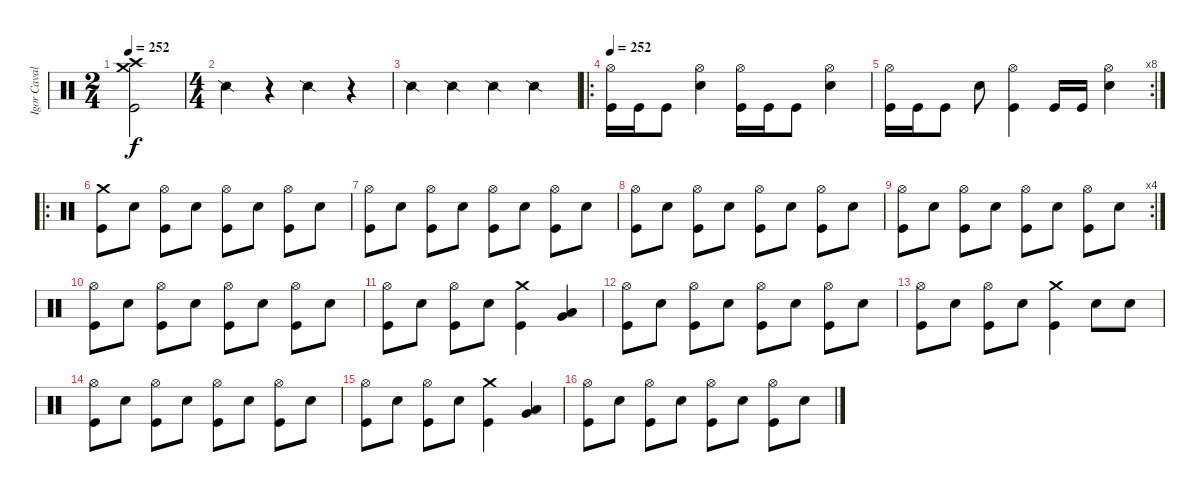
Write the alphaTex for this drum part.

\track ("Igor Cavalera" "Igor Caval") {instrument percussion}
\staff {score}
\articulation defaults
\ts (2 4)
\tempo 252
\clef neutral
\ks c
("Crash high (hit)" "Crash medium (hit)" "Kick (hit)").2{dy f} |
\ts (4 4)
"Snare (side stick) 2".4 r.4 "Snare (side stick) 2".4 r.4 |
"Snare (side stick) 2".4 "Snare (side stick) 2".4 "Snare (side stick) 2".4 "Snare (side stick) 2".4 |
\ro
\tempo 252
("Hi-Hat (open)" "Kick (hit)").16 "Kick (hit)".16 "Kick (hit)".8 ("Hi-Hat (open)" "Electric Snare (hit)").4 ("Hi-Hat (open)" "Kick (hit)").16 "Kick (hit)".16 "Kick (hit)".8 ("Hi-Hat (open)" "Electric Snare (hit)").4 |
\rc 8
("Hi-Hat (open)" "Kick (hit)").16 "Kick (hit)".16 "Kick (hit)".8 "Electric Snare (hit)".8 ("Hi-Hat (open)" "Kick (hit)").4 "Kick (hit)".16 "Kick (hit)".16 ("Hi-Hat (open)" "Electric Snare (hit)").4 |
\ro
("Crash medium (hit)" "Kick (hit)").8 "Electric Snare (hit)".8 ("Hi-Hat (open)" "Kick (hit)").8 "Electric Snare (hit)".8 ("Hi-Hat (open)" "Kick (hit)").8 "Electric Snare (hit)".8 ("Hi-Hat (open)" "Kick (hit)").8 "Electric Snare (hit)".8 |
("Hi-Hat (open)" "Kick (hit)").8 "Electric Snare (hit)".8 ("Hi-Hat (open)" "Kick (hit)").8 "Electric Snare (hit)".8 ("Hi-Hat (open)" "Kick (hit)").8 "Electric Snare (hit)".8 ("Hi-Hat (open)" "Kick (hit)").8 "Electric Snare (hit)".8 |
("Hi-Hat (open)" "Kick (hit)").8 "Electric Snare (hit)".8 ("Hi-Hat (open)" "Kick (hit)").8 "Electric Snare (hit)".8 ("Hi-Hat (open)" "Kick (hit)").8 "Electric Snare (hit)".8 ("Hi-Hat (open)" "Kick (hit)").8 "Electric Snare (hit)".8 |
\rc 4
("Hi-Hat (open)" "Kick (hit)").8 "Electric Snare (hit)".8 ("Hi-Hat (open)" "Kick (hit)").8 "Electric Snare (hit)".8 ("Hi-Hat (open)" "Kick (hit)").8 "Electric Snare (hit)".8 ("Hi-Hat (open)" "Kick (hit)").8 "Electric Snare (hit)".8 |
("Hi-Hat (open)" "Kick (hit)").8 "Electric Snare (hit)".8 ("Hi-Hat (open)" "Kick (hit)").8 "Electric Snare (hit)".8 ("Hi-Hat (open)" "Kick (hit)").8 "Electric Snare (hit)".8 ("Hi-Hat (open)" "Kick (hit)").8 "Electric Snare (hit)".8 |
("Hi-Hat (open)" "Kick (hit)").8 "Electric Snare (hit)".8 ("Hi-Hat (open)" "Kick (hit)").8 "Electric Snare (hit)".8 ("Crash medium (hit)" "Kick (hit)").4 ("Very Low Tom (hit)" "Low Floor Tom (hit)").4 |
("Hi-Hat (open)" "Kick (hit)").8 "Electric Snare (hit)".8 ("Hi-Hat (open)" "Kick (hit)").8 "Electric Snare (hit)".8 ("Hi-Hat (open)" "Kick (hit)").8 "Electric Snare (hit)".8 ("Hi-Hat (open)" "Kick (hit)").8 "Electric Snare (hit)".8 |
("Hi-Hat (open)" "Kick (hit)").8 "Electric Snare (hit)".8 ("Hi-Hat (open)" "Kick (hit)").8 "Electric Snare (hit)".8 ("Crash medium (hit)" "Kick (hit)").4 "Electric Snare (hit)".8 "Electric Snare (hit)".8 |
("Hi-Hat (open)" "Kick (hit)").8 "Electric Snare (hit)".8 ("Hi-Hat (open)" "Kick (hit)").8 "Electric Snare (hit)".8 ("Hi-Hat (open)" "Kick (hit)").8 "Electric Snare (hit)".8 ("Hi-Hat (open)" "Kick (hit)").8 "Electric Snare (hit)".8 |
("Hi-Hat (open)" "Kick (hit)").8 "Electric Snare (hit)".8 ("Hi-Hat (open)" "Kick (hit)").8 "Electric Snare (hit)".8 ("Crash medium (hit)" "Kick (hit)").4 ("Very Low Tom (hit)" "Low Floor Tom (hit)").4 |
("Hi-Hat (open)" "Kick (hit)").8 "Electric Snare (hit)".8 ("Hi-Hat (open)" "Kick (hit)").8 "Electric Snare (hit)".8 ("Hi-Hat (open)" "Kick (hit)").8 "Electric Snare (hit)".8 ("Hi-Hat (open)" "Kick (hit)").8 "Electric Snare (hit)".8
